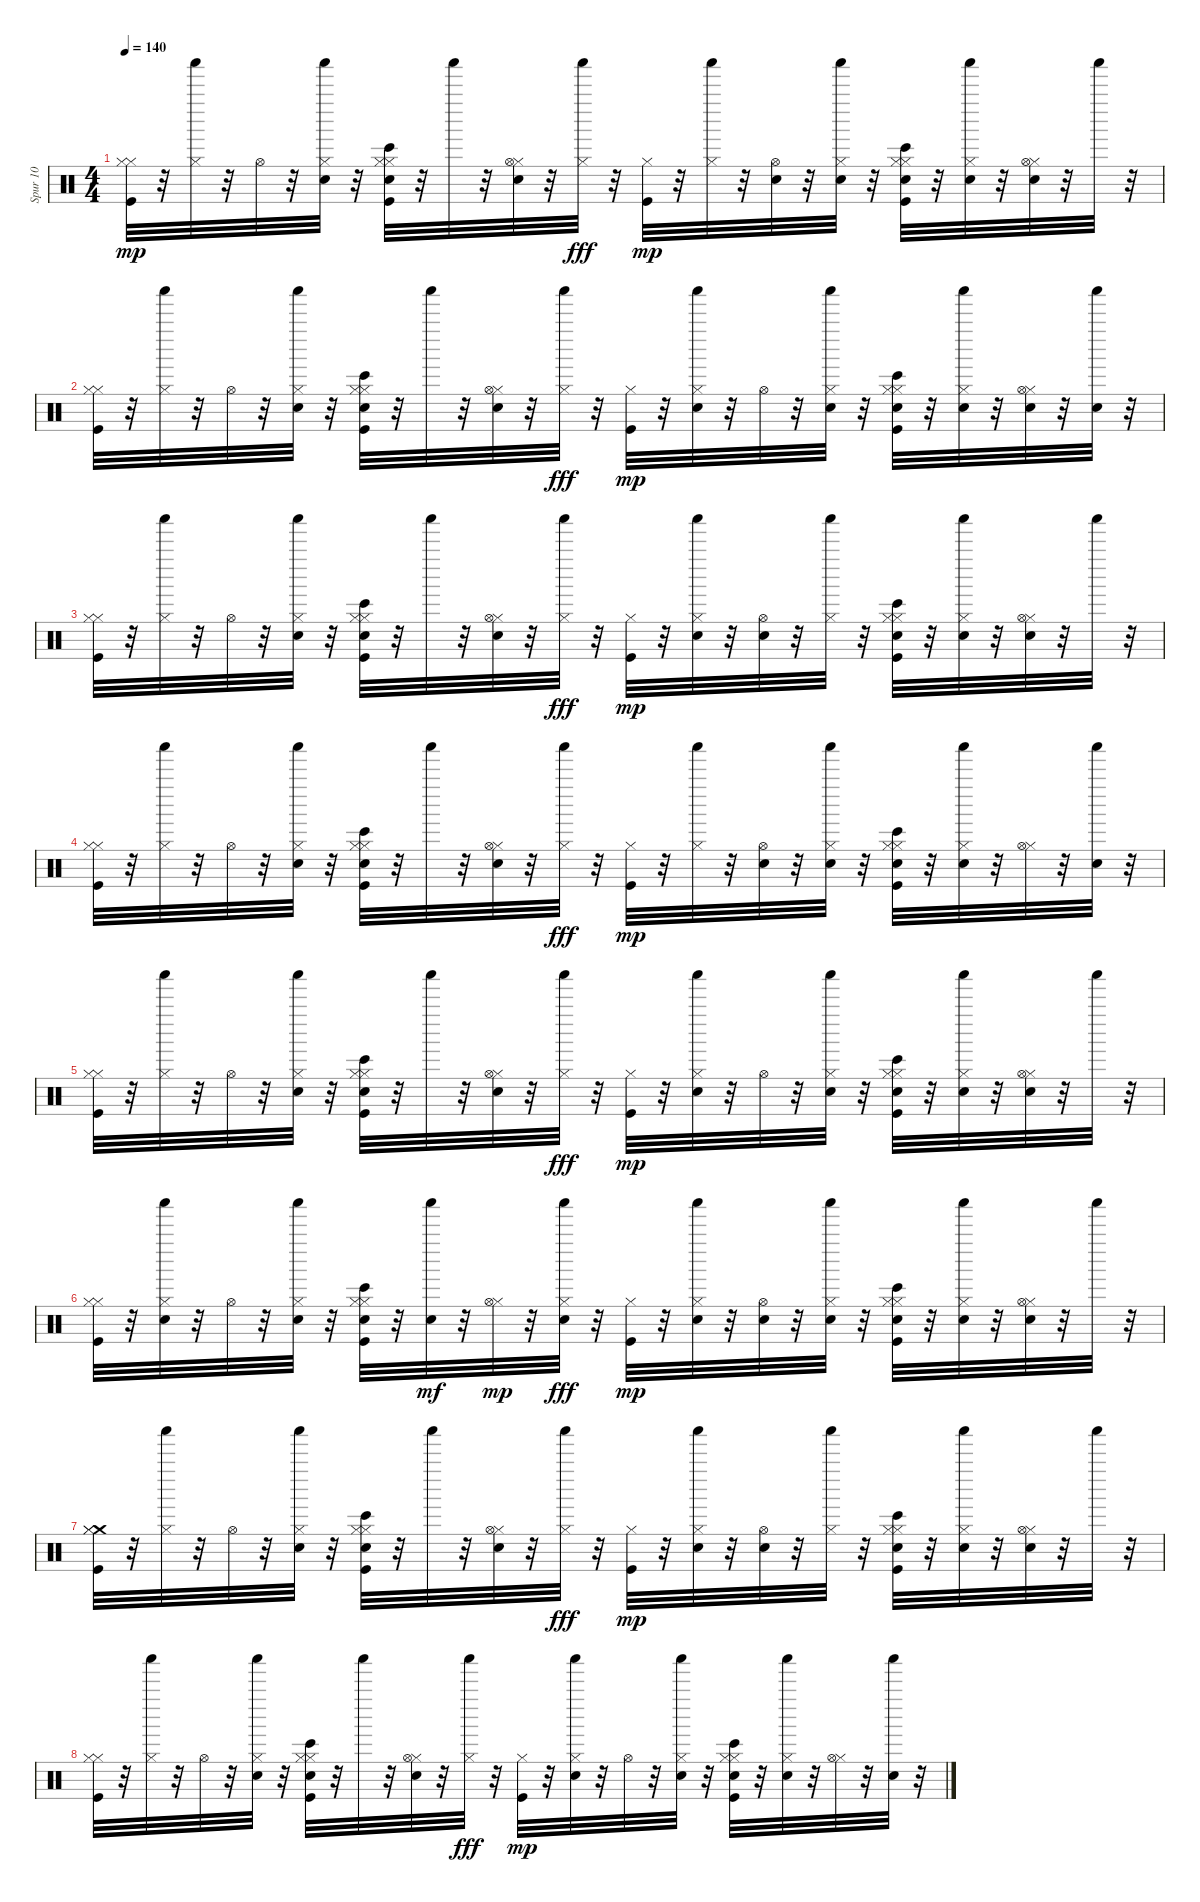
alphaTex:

\track ("Spur 10" "Spur 10") {instrument percussion}
\staff {score}
\articulation defaults
\ts (4 4)
\tempo 140
\clef neutral
\ks c
("Hi-Hat (closed)" "Kick (hit)" "Hi-Hat (closed)").32{dy mp} r.32 ("Hi-Hat (closed)" "Shaker (hit)").32 r.32 "Hi-Hat (open)".32 r.32 ("Shaker (hit)" "Snare (hit) 2" "Hi-Hat (closed)").32 r.32 ("Hi-Hat (closed)" "Kick (hit)" "Bongo High (hit)" "Electric Snare (hit)" "Hi-Hat (closed)").32 r.32 "Shaker (hit)".32 r.32 ("Snare (hit) 2" "Hi-Hat (closed)" "Hi-Hat (open)").32 r.32 ("Shaker (hit)" "Hi-Hat (closed)").32{dy fff} r.32 ("Kick (hit)" "Hi-Hat (closed)").32{dy mp} r.32 ("Hi-Hat (closed)" "Shaker (hit)").32 r.32 ("Snare (hit) 2" "Hi-Hat (open)").32 r.32 ("Snare (hit) 2" "Shaker (hit)" "Hi-Hat (closed)").32 r.32 ("Hi-Hat (closed)" "Kick (hit)" "Bongo High (hit)" "Electric Snare (hit)" "Hi-Hat (closed)").32 r.32 ("Snare (hit) 2" "Hi-Hat (closed)" "Shaker (hit)").32 r.32 ("Snare (hit) 2" "Hi-Hat (closed)" "Hi-Hat (open)").32 r.32 "Shaker (hit)".32 r.32 |
("Hi-Hat (closed)" "Kick (hit)" "Hi-Hat (closed)").32 r.32 ("Hi-Hat (closed)" "Shaker (hit)").32 r.32 "Hi-Hat (open)".32 r.32 ("Shaker (hit)" "Snare (hit) 2" "Hi-Hat (closed)").32 r.32 ("Hi-Hat (closed)" "Kick (hit)" "Bongo High (hit)" "Electric Snare (hit)" "Hi-Hat (closed)").32 r.32 "Shaker (hit)".32 r.32 ("Snare (hit) 2" "Hi-Hat (closed)" "Hi-Hat (open)").32 r.32 ("Shaker (hit)" "Hi-Hat (closed)").32{dy fff} r.32 ("Kick (hit)" "Hi-Hat (closed)").32{dy mp} r.32 ("Snare (hit) 2" "Hi-Hat (closed)" "Shaker (hit)").32 r.32 "Hi-Hat (open)".32 r.32 ("Snare (hit) 2" "Shaker (hit)" "Hi-Hat (closed)").32 r.32 ("Hi-Hat (closed)" "Kick (hit)" "Bongo High (hit)" "Electric Snare (hit)" "Hi-Hat (closed)").32 r.32 ("Snare (hit) 2" "Hi-Hat (closed)" "Shaker (hit)").32 r.32 ("Snare (hit) 2" "Hi-Hat (closed)" "Hi-Hat (open)").32 r.32 ("Snare (hit) 2" "Shaker (hit)").32 r.32 |
("Hi-Hat (closed)" "Kick (hit)" "Hi-Hat (closed)").32 r.32 ("Hi-Hat (closed)" "Shaker (hit)").32 r.32 "Hi-Hat (open)".32 r.32 ("Shaker (hit)" "Snare (hit) 2" "Hi-Hat (closed)").32 r.32 ("Hi-Hat (closed)" "Kick (hit)" "Bongo High (hit)" "Electric Snare (hit)" "Hi-Hat (closed)").32 r.32 "Shaker (hit)".32 r.32 ("Snare (hit) 2" "Hi-Hat (closed)" "Hi-Hat (open)").32 r.32 ("Shaker (hit)" "Hi-Hat (closed)").32{dy fff} r.32 ("Kick (hit)" "Hi-Hat (closed)").32{dy mp} r.32 ("Snare (hit) 2" "Hi-Hat (closed)" "Shaker (hit)").32 r.32 ("Snare (hit) 2" "Hi-Hat (open)").32 r.32 ("Shaker (hit)" "Hi-Hat (closed)").32 r.32 ("Hi-Hat (closed)" "Kick (hit)" "Bongo High (hit)" "Electric Snare (hit)" "Hi-Hat (closed)").32 r.32 ("Snare (hit) 2" "Hi-Hat (closed)" "Shaker (hit)").32 r.32 ("Snare (hit) 2" "Hi-Hat (closed)" "Hi-Hat (open)").32 r.32 "Shaker (hit)".32 r.32 |
("Hi-Hat (closed)" "Kick (hit)" "Hi-Hat (closed)").32 r.32 ("Hi-Hat (closed)" "Shaker (hit)").32 r.32 "Hi-Hat (open)".32 r.32 ("Shaker (hit)" "Snare (hit) 2" "Hi-Hat (closed)").32 r.32 ("Hi-Hat (closed)" "Kick (hit)" "Bongo High (hit)" "Electric Snare (hit)" "Hi-Hat (closed)").32 r.32 "Shaker (hit)".32 r.32 ("Snare (hit) 2" "Hi-Hat (closed)" "Hi-Hat (open)").32 r.32 ("Shaker (hit)" "Hi-Hat (closed)").32{dy fff} r.32 ("Kick (hit)" "Hi-Hat (closed)").32{dy mp} r.32 ("Hi-Hat (closed)" "Shaker (hit)").32 r.32 ("Snare (hit) 2" "Hi-Hat (open)").32 r.32 ("Snare (hit) 2" "Shaker (hit)" "Hi-Hat (closed)").32 r.32 ("Hi-Hat (closed)" "Kick (hit)" "Bongo High (hit)" "Electric Snare (hit)" "Hi-Hat (closed)").32 r.32 ("Snare (hit) 2" "Hi-Hat (closed)" "Shaker (hit)").32 r.32 ("Hi-Hat (closed)" "Hi-Hat (open)").32 r.32 ("Snare (hit) 2" "Shaker (hit)").32 r.32 |
("Hi-Hat (closed)" "Kick (hit)" "Hi-Hat (closed)").32 r.32 ("Hi-Hat (closed)" "Shaker (hit)").32 r.32 "Hi-Hat (open)".32 r.32 ("Shaker (hit)" "Snare (hit) 2" "Hi-Hat (closed)").32 r.32 ("Hi-Hat (closed)" "Kick (hit)" "Bongo High (hit)" "Electric Snare (hit)" "Hi-Hat (closed)").32 r.32 "Shaker (hit)".32 r.32 ("Snare (hit) 2" "Hi-Hat (closed)" "Hi-Hat (open)").32 r.32 ("Shaker (hit)" "Hi-Hat (closed)").32{dy fff} r.32 ("Kick (hit)" "Hi-Hat (closed)").32{dy mp} r.32 ("Snare (hit) 2" "Hi-Hat (closed)" "Shaker (hit)").32 r.32 "Hi-Hat (open)".32 r.32 ("Snare (hit) 2" "Shaker (hit)" "Hi-Hat (closed)").32 r.32 ("Hi-Hat (closed)" "Kick (hit)" "Bongo High (hit)" "Electric Snare (hit)" "Hi-Hat (closed)").32 r.32 ("Snare (hit) 2" "Hi-Hat (closed)" "Shaker (hit)").32 r.32 ("Snare (hit) 2" "Hi-Hat (closed)" "Hi-Hat (open)").32 r.32 "Shaker (hit)".32 r.32 |
("Hi-Hat (closed)" "Kick (hit)" "Hi-Hat (closed)").32 r.32 ("Snare (hit) 2" "Hi-Hat (closed)" "Shaker (hit)").32 r.32 "Hi-Hat (open)".32 r.32 ("Shaker (hit)" "Snare (hit) 2" "Hi-Hat (closed)").32 r.32 ("Hi-Hat (closed)" "Kick (hit)" "Bongo High (hit)" "Electric Snare (hit)" "Hi-Hat (closed)").32 r.32 ("Shaker (hit)" "Snare (hit) 2").32{dy mf} r.32 ("Hi-Hat (closed)" "Hi-Hat (open)").32{dy mp} r.32 ("Snare (hit) 2" "Shaker (hit)" "Hi-Hat (closed)").32{dy fff} r.32 ("Kick (hit)" "Hi-Hat (closed)").32{dy mp} r.32 ("Snare (hit) 2" "Hi-Hat (closed)" "Shaker (hit)").32 r.32 ("Snare (hit) 2" "Hi-Hat (open)").32 r.32 ("Snare (hit) 2" "Shaker (hit)" "Hi-Hat (closed)").32 r.32 ("Hi-Hat (closed)" "Kick (hit)" "Bongo High (hit)" "Electric Snare (hit)" "Hi-Hat (closed)").32 r.32 ("Snare (hit) 2" "Hi-Hat (closed)" "Shaker (hit)").32 r.32 ("Snare (hit) 2" "Hi-Hat (closed)" "Hi-Hat (open)").32 r.32 "Shaker (hit)".32 r.32 |
("Crash medium (hit)" "Hi-Hat (closed)" "Kick (hit)" "Hi-Hat (closed)").32 r.32 ("Hi-Hat (closed)" "Shaker (hit)").32 r.32 "Hi-Hat (open)".32 r.32 ("Shaker (hit)" "Snare (hit) 2" "Hi-Hat (closed)").32 r.32 ("Hi-Hat (closed)" "Kick (hit)" "Bongo High (hit)" "Electric Snare (hit)" "Hi-Hat (closed)").32 r.32 "Shaker (hit)".32 r.32 ("Snare (hit) 2" "Hi-Hat (closed)" "Hi-Hat (open)").32 r.32 ("Shaker (hit)" "Hi-Hat (closed)").32{dy fff} r.32 ("Kick (hit)" "Hi-Hat (closed)").32{dy mp} r.32 ("Snare (hit) 2" "Hi-Hat (closed)" "Shaker (hit)").32 r.32 ("Snare (hit) 2" "Hi-Hat (open)").32 r.32 ("Shaker (hit)" "Hi-Hat (closed)").32 r.32 ("Hi-Hat (closed)" "Kick (hit)" "Bongo High (hit)" "Electric Snare (hit)" "Hi-Hat (closed)").32 r.32 ("Snare (hit) 2" "Hi-Hat (closed)" "Shaker (hit)").32 r.32 ("Snare (hit) 2" "Hi-Hat (closed)" "Hi-Hat (open)").32 r.32 "Shaker (hit)".32 r.32 |
("Hi-Hat (closed)" "Kick (hit)" "Hi-Hat (closed)").32 r.32 ("Hi-Hat (closed)" "Shaker (hit)").32 r.32 "Hi-Hat (open)".32 r.32 ("Shaker (hit)" "Snare (hit) 2" "Hi-Hat (closed)").32 r.32 ("Hi-Hat (closed)" "Kick (hit)" "Bongo High (hit)" "Electric Snare (hit)" "Hi-Hat (closed)").32 r.32 "Shaker (hit)".32 r.32 ("Snare (hit) 2" "Hi-Hat (closed)" "Hi-Hat (open)").32 r.32 ("Shaker (hit)" "Hi-Hat (closed)").32{dy fff} r.32 ("Kick (hit)" "Hi-Hat (closed)").32{dy mp} r.32 ("Snare (hit) 2" "Hi-Hat (closed)" "Shaker (hit)").32 r.32 "Hi-Hat (open)".32 r.32 ("Snare (hit) 2" "Shaker (hit)" "Hi-Hat (closed)").32 r.32 ("Hi-Hat (closed)" "Kick (hit)" "Bongo High (hit)" "Electric Snare (hit)" "Hi-Hat (closed)").32 r.32 ("Snare (hit) 2" "Hi-Hat (closed)" "Shaker (hit)").32 r.32 ("Hi-Hat (closed)" "Hi-Hat (open)").32 r.32 ("Snare (hit) 2" "Shaker (hit)").32 r.32
